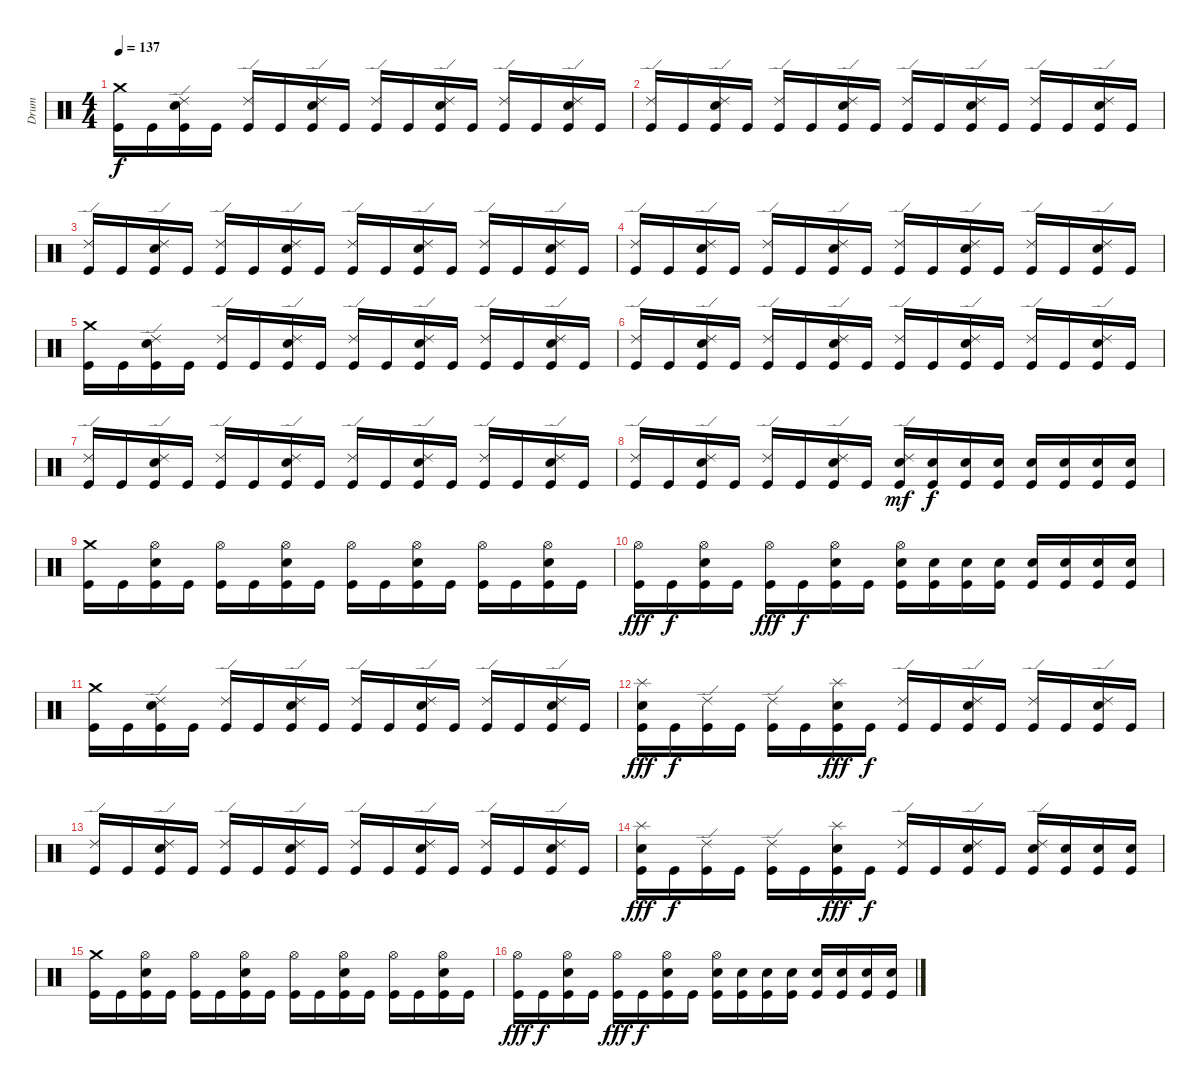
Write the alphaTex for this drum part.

\track ("Drum" "Drum") {instrument percussion}
\staff {score}
\articulation defaults
\ts (4 4)
\tempo 137
\clef neutral
\ks c
("Crash medium (hit)" "Kick (hit)").16{dy f} "Kick (hit)".16 ("Ride (edge) 2" "Snare (hit) 2" "Kick (hit)").16 "Kick (hit)".16 ("Ride (edge) 2" "Kick (hit)").16 "Kick (hit)".16 ("Ride (edge) 2" "Snare (hit) 2" "Kick (hit)").16 "Kick (hit)".16 ("Ride (edge) 2" "Kick (hit)").16 "Kick (hit)".16 ("Ride (edge) 2" "Snare (hit) 2" "Kick (hit)").16 "Kick (hit)".16 ("Ride (edge) 2" "Kick (hit)").16 "Kick (hit)".16 ("Ride (edge) 2" "Snare (hit) 2" "Kick (hit)").16 "Kick (hit)".16 |
("Ride (edge) 2" "Kick (hit)").16 "Kick (hit)".16 ("Ride (edge) 2" "Snare (hit) 2" "Kick (hit)").16 "Kick (hit)".16 ("Ride (edge) 2" "Kick (hit)").16 "Kick (hit)".16 ("Ride (edge) 2" "Snare (hit) 2" "Kick (hit)").16 "Kick (hit)".16 ("Ride (edge) 2" "Kick (hit)").16 "Kick (hit)".16 ("Ride (edge) 2" "Snare (hit) 2" "Kick (hit)").16 "Kick (hit)".16 ("Ride (edge) 2" "Kick (hit)").16 "Kick (hit)".16 ("Ride (edge) 2" "Snare (hit) 2" "Kick (hit)").16 "Kick (hit)".16 |
("Ride (edge) 2" "Kick (hit)").16 "Kick (hit)".16 ("Ride (edge) 2" "Snare (hit) 2" "Kick (hit)").16 "Kick (hit)".16 ("Ride (edge) 2" "Kick (hit)").16 "Kick (hit)".16 ("Ride (edge) 2" "Snare (hit) 2" "Kick (hit)").16 "Kick (hit)".16 ("Ride (edge) 2" "Kick (hit)").16 "Kick (hit)".16 ("Ride (edge) 2" "Snare (hit) 2" "Kick (hit)").16 "Kick (hit)".16 ("Ride (edge) 2" "Kick (hit)").16 "Kick (hit)".16 ("Ride (edge) 2" "Snare (hit) 2" "Kick (hit)").16 "Kick (hit)".16 |
("Ride (edge) 2" "Kick (hit)").16 "Kick (hit)".16 ("Ride (edge) 2" "Snare (hit) 2" "Kick (hit)").16 "Kick (hit)".16 ("Ride (edge) 2" "Kick (hit)").16 "Kick (hit)".16 ("Ride (edge) 2" "Snare (hit) 2" "Kick (hit)").16 "Kick (hit)".16 ("Ride (edge) 2" "Kick (hit)").16 "Kick (hit)".16 ("Ride (edge) 2" "Snare (hit) 2" "Kick (hit)").16 "Kick (hit)".16 ("Ride (edge) 2" "Kick (hit)").16 "Kick (hit)".16 ("Ride (edge) 2" "Snare (hit) 2" "Kick (hit)").16 "Kick (hit)".16 |
("Crash medium (hit)" "Kick (hit)").16 "Kick (hit)".16 ("Ride (edge) 2" "Snare (hit) 2" "Kick (hit)").16 "Kick (hit)".16 ("Ride (edge) 2" "Kick (hit)").16 "Kick (hit)".16 ("Ride (edge) 2" "Snare (hit) 2" "Kick (hit)").16 "Kick (hit)".16 ("Ride (edge) 2" "Kick (hit)").16 "Kick (hit)".16 ("Ride (edge) 2" "Snare (hit) 2" "Kick (hit)").16 "Kick (hit)".16 ("Ride (edge) 2" "Kick (hit)").16 "Kick (hit)".16 ("Ride (edge) 2" "Snare (hit) 2" "Kick (hit)").16 "Kick (hit)".16 |
("Ride (edge) 2" "Kick (hit)").16 "Kick (hit)".16 ("Ride (edge) 2" "Snare (hit) 2" "Kick (hit)").16 "Kick (hit)".16 ("Ride (edge) 2" "Kick (hit)").16 "Kick (hit)".16 ("Ride (edge) 2" "Snare (hit) 2" "Kick (hit)").16 "Kick (hit)".16 ("Ride (edge) 2" "Kick (hit)").16 "Kick (hit)".16 ("Ride (edge) 2" "Snare (hit) 2" "Kick (hit)").16 "Kick (hit)".16 ("Ride (edge) 2" "Kick (hit)").16 "Kick (hit)".16 ("Ride (edge) 2" "Snare (hit) 2" "Kick (hit)").16 "Kick (hit)".16 |
("Ride (edge) 2" "Kick (hit)").16 "Kick (hit)".16 ("Ride (edge) 2" "Snare (hit) 2" "Kick (hit)").16 "Kick (hit)".16 ("Ride (edge) 2" "Kick (hit)").16 "Kick (hit)".16 ("Ride (edge) 2" "Snare (hit) 2" "Kick (hit)").16 "Kick (hit)".16 ("Ride (edge) 2" "Kick (hit)").16 "Kick (hit)".16 ("Ride (edge) 2" "Snare (hit) 2" "Kick (hit)").16 "Kick (hit)".16 ("Ride (edge) 2" "Kick (hit)").16 "Kick (hit)".16 ("Ride (edge) 2" "Snare (hit) 2" "Kick (hit)").16 "Kick (hit)".16 |
("Ride (edge) 2" "Kick (hit)").16 "Kick (hit)".16 ("Ride (edge) 2" "Snare (hit) 2" "Kick (hit)").16 "Kick (hit)".16 ("Ride (edge) 2" "Kick (hit)").16 "Kick (hit)".16 ("Ride (edge) 2" "Snare (hit) 2" "Kick (hit)").16 "Kick (hit)".16 ("Ride (edge) 2" "Snare (hit) 2" "Kick (hit)").16{dy mf} ("Snare (hit) 2" "Kick (hit)").16{dy f} ("Snare (hit) 2" "Kick (hit)").16 ("Snare (hit) 2" "Kick (hit)").16 ("Snare (hit) 2" "Kick (hit)").16 ("Snare (hit) 2" "Kick (hit)").16 ("Snare (hit) 2" "Kick (hit)").16 ("Snare (hit) 2" "Kick (hit)").16 |
("Crash medium (hit)" "Kick (hit)").16 "Kick (hit)".16 ("Hi-Hat (open)" "Snare (hit) 2" "Kick (hit)").16 "Kick (hit)".16 ("Hi-Hat (open)" "Kick (hit)").16 "Kick (hit)".16 ("Hi-Hat (open)" "Snare (hit) 2" "Kick (hit)").16 "Kick (hit)".16 ("Hi-Hat (open)" "Kick (hit)").16 "Kick (hit)".16 ("Hi-Hat (open)" "Snare (hit) 2" "Kick (hit)").16 "Kick (hit)".16 ("Hi-Hat (open)" "Kick (hit)").16 "Kick (hit)".16 ("Hi-Hat (open)" "Snare (hit) 2" "Kick (hit)").16 "Kick (hit)".16 |
("Hi-Hat (open)" "Kick (hit)").16{dy fff} "Kick (hit)".16{dy f} ("Hi-Hat (open)" "Snare (hit) 2" "Kick (hit)").16 "Kick (hit)".16 ("Hi-Hat (open)" "Kick (hit)").16{dy fff} "Kick (hit)".16{dy f} ("Hi-Hat (open)" "Snare (hit) 2" "Kick (hit)").16 "Kick (hit)".16 ("Hi-Hat (open)" "Snare (hit) 2" "Kick (hit)").16 ("Snare (hit) 2" "Kick (hit)").16 ("Snare (hit) 2" "Kick (hit)").16 ("Snare (hit) 2" "Kick (hit)").16 ("Snare (hit) 2" "Kick (hit)").16 ("Snare (hit) 2" "Kick (hit)").16 ("Snare (hit) 2" "Kick (hit)").16 ("Snare (hit) 2" "Kick (hit)").16 |
("Crash medium (hit)" "Kick (hit)").16 "Kick (hit)".16 ("Ride (edge) 2" "Snare (hit) 2" "Kick (hit)").16 "Kick (hit)".16 ("Ride (edge) 2" "Kick (hit)").16 "Kick (hit)".16 ("Ride (edge) 2" "Snare (hit) 2" "Kick (hit)").16 "Kick (hit)".16 ("Ride (edge) 2" "Kick (hit)").16 "Kick (hit)".16 ("Ride (edge) 2" "Snare (hit) 2" "Kick (hit)").16 "Kick (hit)".16 ("Ride (edge) 2" "Kick (hit)").16 "Kick (hit)".16 ("Ride (edge) 2" "Snare (hit) 2" "Kick (hit)").16 "Kick (hit)".16 |
("Splash (hit)" "Snare (hit) 2" "Kick (hit)").16{dy fff} "Kick (hit)".16{dy f} ("Ride (edge) 2" "Kick (hit)").16 "Kick (hit)".16 ("Ride (edge) 2" "Kick (hit)").16 "Kick (hit)".16 ("Splash (hit)" "Snare (hit) 2" "Kick (hit)").16{dy fff} "Kick (hit)".16{dy f} ("Ride (edge) 2" "Kick (hit)").16 "Kick (hit)".16 ("Ride (edge) 2" "Snare (hit) 2" "Kick (hit)").16 "Kick (hit)".16 ("Ride (edge) 2" "Kick (hit)").16 "Kick (hit)".16 ("Ride (edge) 2" "Snare (hit) 2" "Kick (hit)").16 "Kick (hit)".16 |
("Ride (edge) 2" "Kick (hit)").16 "Kick (hit)".16 ("Ride (edge) 2" "Snare (hit) 2" "Kick (hit)").16 "Kick (hit)".16 ("Ride (edge) 2" "Kick (hit)").16 "Kick (hit)".16 ("Ride (edge) 2" "Snare (hit) 2" "Kick (hit)").16 "Kick (hit)".16 ("Ride (edge) 2" "Kick (hit)").16 "Kick (hit)".16 ("Ride (edge) 2" "Snare (hit) 2" "Kick (hit)").16 "Kick (hit)".16 ("Ride (edge) 2" "Kick (hit)").16 "Kick (hit)".16 ("Ride (edge) 2" "Snare (hit) 2" "Kick (hit)").16 "Kick (hit)".16 |
("Splash (hit)" "Snare (hit) 2" "Kick (hit)").16{dy fff} "Kick (hit)".16{dy f} ("Ride (edge) 2" "Kick (hit)").16 "Kick (hit)".16 ("Ride (edge) 2" "Kick (hit)").16 "Kick (hit)".16 ("Splash (hit)" "Snare (hit) 2" "Kick (hit)").16{dy fff} "Kick (hit)".16{dy f} ("Ride (edge) 2" "Kick (hit)").16 "Kick (hit)".16 ("Ride (edge) 2" "Snare (hit) 2" "Kick (hit)").16 "Kick (hit)".16 ("Ride (edge) 2" "Snare (hit) 2" "Kick (hit)").16 ("Snare (hit) 2" "Kick (hit)").16 ("Snare (hit) 2" "Kick (hit)").16 ("Snare (hit) 2" "Kick (hit)").16 |
("Crash medium (hit)" "Kick (hit)").16 "Kick (hit)".16 ("Hi-Hat (open)" "Snare (hit) 2" "Kick (hit)").16 "Kick (hit)".16 ("Hi-Hat (open)" "Kick (hit)").16 "Kick (hit)".16 ("Hi-Hat (open)" "Snare (hit) 2" "Kick (hit)").16 "Kick (hit)".16 ("Hi-Hat (open)" "Kick (hit)").16 "Kick (hit)".16 ("Hi-Hat (open)" "Snare (hit) 2" "Kick (hit)").16 "Kick (hit)".16 ("Hi-Hat (open)" "Kick (hit)").16 "Kick (hit)".16 ("Hi-Hat (open)" "Snare (hit) 2" "Kick (hit)").16 "Kick (hit)".16 |
("Hi-Hat (open)" "Kick (hit)").16{dy fff} "Kick (hit)".16{dy f} ("Hi-Hat (open)" "Snare (hit) 2" "Kick (hit)").16 "Kick (hit)".16 ("Hi-Hat (open)" "Kick (hit)").16{dy fff} "Kick (hit)".16{dy f} ("Hi-Hat (open)" "Snare (hit) 2" "Kick (hit)").16 "Kick (hit)".16 ("Hi-Hat (open)" "Snare (hit) 2" "Kick (hit)").16 ("Snare (hit) 2" "Kick (hit)").16 ("Snare (hit) 2" "Kick (hit)").16 ("Snare (hit) 2" "Kick (hit)").16 ("Snare (hit) 2" "Kick (hit)").16 ("Snare (hit) 2" "Kick (hit)").16 ("Snare (hit) 2" "Kick (hit)").16 ("Snare (hit) 2" "Kick (hit)").16
